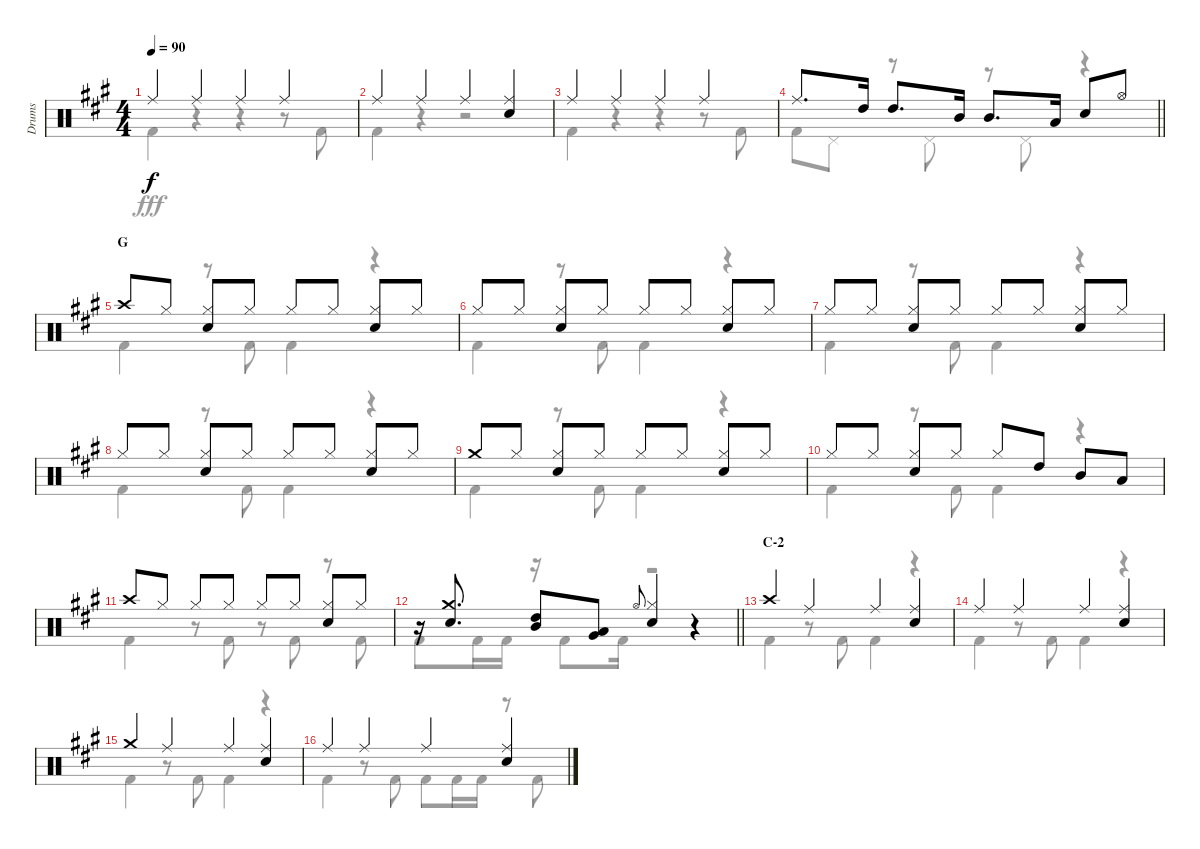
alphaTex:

\track ("Drums" "Drums") {instrument percussion}
\staff {score}
\articulation defaults
\voice
\ts (4 4)
\tempo 90
\clef neutral
\ks a "Ride (middle)".4{dy f} "Ride (middle)".4 "Ride (middle)".4 "Ride (middle)".4
|
"Ride (middle)".4 "Ride (middle)".4 "Ride (middle)".4 ("Ride (middle)" "Snare (hit) 2").4 |
"Ride (middle)".4 "Ride (middle)".4 "Ride (middle)".4 "Ride (middle)".4 |
\barLineRight lightlight "Ride (middle)".8{d} "High Tom (hit)".16 "High Tom (hit)".8{d} "Mid Tom (hit)".16 "Mid Tom (hit)".8{d} "Low Tom (hit)".16 "Snare (hit) 2".8 "Hi-Hat (open)".8
|
\section ("" "G")
"Crash high (hit)".8 "Hi-Hat (closed)".8 ("Hi-Hat (closed)" "Snare (hit) 2").8 "Hi-Hat (closed)".8 "Hi-Hat (closed)".8 "Hi-Hat (closed)".8 ("Hi-Hat (closed)" "Snare (hit) 2").8 "Hi-Hat (closed)".8 |
"Hi-Hat (closed)".8 "Hi-Hat (closed)".8 ("Hi-Hat (closed)" "Snare (hit) 2").8 "Hi-Hat (closed)".8 "Hi-Hat (closed)".8 "Hi-Hat (closed)".8 ("Hi-Hat (closed)" "Snare (hit) 2").8 "Hi-Hat (closed)".8 |
"Hi-Hat (closed)".8 "Hi-Hat (closed)".8 ("Hi-Hat (closed)" "Snare (hit) 2").8 "Hi-Hat (closed)".8 "Hi-Hat (closed)".8 "Hi-Hat (closed)".8 ("Hi-Hat (closed)" "Snare (hit) 2").8 "Hi-Hat (closed)".8 |
"Hi-Hat (closed)".8 "Hi-Hat (closed)".8 ("Hi-Hat (closed)" "Snare (hit) 2").8 "Hi-Hat (closed)".8 "Hi-Hat (closed)".8 "Hi-Hat (closed)".8 ("Hi-Hat (closed)" "Snare (hit) 2").8 "Hi-Hat (closed)".8 |
"Crash medium (hit)".8 "Hi-Hat (closed)".8 ("Hi-Hat (closed)" "Snare (hit) 2").8 "Hi-Hat (closed)".8 "Hi-Hat (closed)".8 "Hi-Hat (closed)".8 ("Hi-Hat (closed)" "Snare (hit) 2").8 "Hi-Hat (closed)".8 |
"Hi-Hat (closed)".8 "Hi-Hat (closed)".8 ("Hi-Hat (closed)" "Snare (hit) 2").8 "Hi-Hat (closed)".8 "Hi-Hat (closed)".8 "High Tom (hit)".8 "Mid Tom (hit)".8 "Low Tom (hit)".8 |
"Crash high (hit)".8 "Hi-Hat (closed)".8 "Hi-Hat (closed)".8 "Hi-Hat (closed)".8 "Hi-Hat (closed)".8 "Hi-Hat (closed)".8 ("Hi-Hat (closed)" "Snare (hit) 2").8 "Hi-Hat (closed)".8 |
\barLineRight lightlight
r.16 ("Crash medium (hit)" "Snare (hit) 2").8{d} ("High Tom (hit)" "Mid Tom (hit)").8 ("Low Tom (hit)" "Very Low Tom (hit)").8 "Hi-Hat (open)".8{gr onbeat} ("Hi-Hat (closed)" "Snare (hit) 2").4 r.4 |
\section ("" "C-2")
"Crash high (hit)".4 "Ride (middle)".4 "Ride (middle)".4 ("Ride (middle)" "Snare (hit) 2").4 |
"Ride (middle)".4 "Ride (middle)".4 "Ride (middle)".4 ("Ride (middle)" "Snare (hit) 2").4 |
"Crash medium (hit)".4 "Ride (middle)".4 "Ride (middle)".4 ("Ride (middle)" "Snare (hit) 2").4 |
"Ride (middle)".4 "Ride (middle)".4 "Ride (middle)".4 ("Ride (middle)" "Snare (hit) 2").4
\voice
\clef neutral
\ottava regular
\simile none
\ks a "Kick (hit) 2".4{dy fff}
r.4 r.4 r.8 "Kick (hit) 2".8 |
"Kick (hit) 2".4 r.4 r.2 |
"Kick (hit) 2".4 r.4 r.4 r.8 "Kick (hit) 2".8 |
\barLineRight lightlight "Kick (hit) 2".8 "Pedal Hi-Hat (hit)".8
r.8 "Pedal Hi-Hat (hit)".8 r.8 "Pedal Hi-Hat (hit)".8 r.4 |
"Kick (hit) 2".4 r.8 "Kick (hit) 2".8 "Kick (hit) 2".4 r.4 |
"Kick (hit) 2".4 r.8 "Kick (hit) 2".8 "Kick (hit) 2".4 r.4 |
"Kick (hit) 2".4 r.8 "Kick (hit) 2".8 "Kick (hit) 2".4 r.4 |
"Kick (hit) 2".4 r.8 "Kick (hit) 2".8 "Kick (hit) 2".4 r.4 |
"Kick (hit) 2".4 r.8 "Kick (hit) 2".8 "Kick (hit) 2".4 r.4 |
"Kick (hit) 2".4 r.8 "Kick (hit) 2".8 "Kick (hit) 2".4 r.4 |
"Kick (hit) 2".4 r.8 "Kick (hit) 2".8 r.8 "Kick (hit) 2".8 r.8 "Kick (hit) 2".8 |
\barLineRight lightlight "Kick (hit) 2".8 "Kick (hit) 2".16 "Kick (hit) 2".16
r.16 "Kick (hit) 2".8 "Kick (hit) 2".16 r.2 |
"Kick (hit) 2".4 r.8 "Kick (hit) 2".8 "Kick (hit) 2".4 r.4 |
"Kick (hit) 2".4 r.8 "Kick (hit) 2".8 "Kick (hit) 2".4 r.4 |
"Kick (hit) 2".4 r.8 "Kick (hit) 2".8 "Kick (hit) 2".4 r.4 |
"Kick (hit) 2".4 r.8 "Kick (hit) 2".8 "Kick (hit) 2".8 "Kick (hit) 2".16 "Kick (hit) 2".16 r.8 "Kick (hit) 2".8
